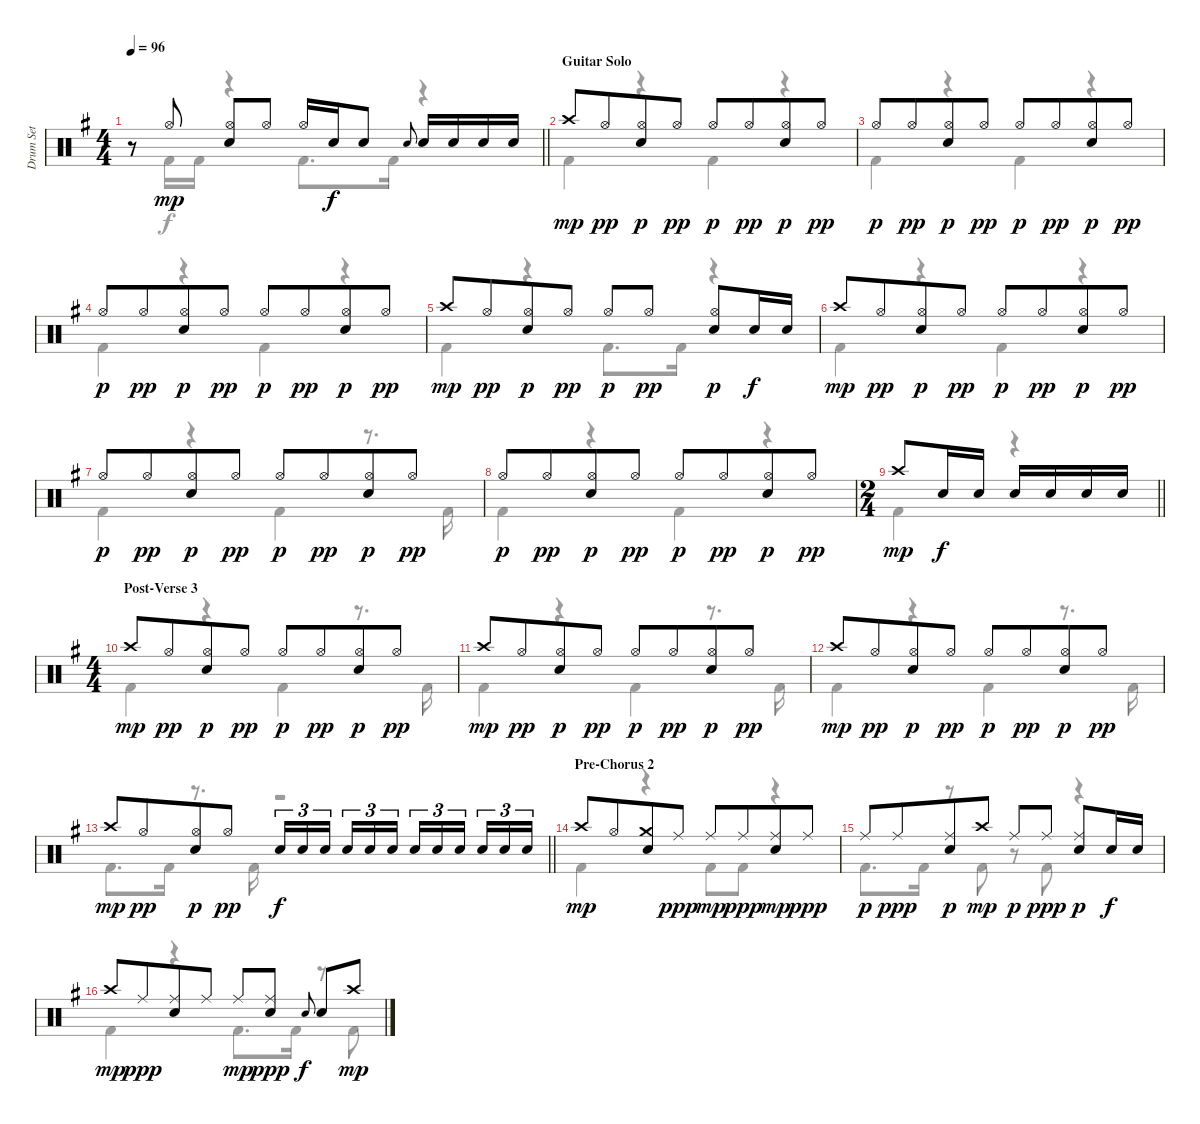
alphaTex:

\track ("Drum Set" "Drum Set") {instrument percussion}
\staff {score}
\articulation defaults
\voice
\ts (4 4)
\tempo 96
\clef neutral
\barLineRight lightlight
\ks g
r.8{dy mp} "Hi-Hat (open)".8 ("Electric Snare (hit)" "Hi-Hat (open)").8 "Hi-Hat (open)".8 "Hi-Hat (open)".16 "Electric Snare (hit)".16{dy f} "Electric Snare (hit)".8 "Electric Snare (hit)".8{gr onbeat} "Electric Snare (hit)".16 "Electric Snare (hit)".16 "Electric Snare (hit)".16 "Electric Snare (hit)".16 |
\section ("" "Guitar Solo")
"Crash high (hit)".8{dy mp} "Hi-Hat (open)".8{dy pp beam merge} ("Hi-Hat (open)" "Electric Snare (hit)").8{dy p} "Hi-Hat (open)".8{dy pp} "Hi-Hat (open)".8{dy p} "Hi-Hat (open)".8{dy pp beam merge} ("Hi-Hat (open)" "Electric Snare (hit)").8{dy p} "Hi-Hat (open)".8{dy pp} |
"Hi-Hat (open)".8{dy p} "Hi-Hat (open)".8{dy pp beam merge} ("Hi-Hat (open)" "Electric Snare (hit)").8{dy p} "Hi-Hat (open)".8{dy pp} "Hi-Hat (open)".8{dy p} "Hi-Hat (open)".8{dy pp beam merge} ("Hi-Hat (open)" "Electric Snare (hit)").8{dy p} "Hi-Hat (open)".8{dy pp} |
"Hi-Hat (open)".8{dy p} "Hi-Hat (open)".8{dy pp beam merge} ("Hi-Hat (open)" "Electric Snare (hit)").8{dy p} "Hi-Hat (open)".8{dy pp} "Hi-Hat (open)".8{dy p} "Hi-Hat (open)".8{dy pp beam merge} ("Hi-Hat (open)" "Electric Snare (hit)").8{dy p} "Hi-Hat (open)".8{dy pp} |
"Crash high (hit)".8{dy mp} "Hi-Hat (open)".8{dy pp beam merge} ("Hi-Hat (open)" "Electric Snare (hit)").8{dy p} "Hi-Hat (open)".8{dy pp} "Hi-Hat (open)".8{dy p} "Hi-Hat (open)".8{dy pp} ("Hi-Hat (open)" "Electric Snare (hit)").8{dy p} "Electric Snare (hit)".16{dy f} "Electric Snare (hit)".16 |
"Crash high (hit)".8{dy mp} "Hi-Hat (open)".8{dy pp beam merge} ("Hi-Hat (open)" "Electric Snare (hit)").8{dy p} "Hi-Hat (open)".8{dy pp} "Hi-Hat (open)".8{dy p} "Hi-Hat (open)".8{dy pp beam merge} ("Hi-Hat (open)" "Electric Snare (hit)").8{dy p} "Hi-Hat (open)".8{dy pp} |
"Hi-Hat (open)".8{dy p} "Hi-Hat (open)".8{dy pp beam merge} ("Hi-Hat (open)" "Electric Snare (hit)").8{dy p} "Hi-Hat (open)".8{dy pp} "Hi-Hat (open)".8{dy p} "Hi-Hat (open)".8{dy pp beam merge} ("Hi-Hat (open)" "Electric Snare (hit)").8{dy p} "Hi-Hat (open)".8{dy pp} |
"Hi-Hat (open)".8{dy p} "Hi-Hat (open)".8{dy pp beam merge} ("Hi-Hat (open)" "Electric Snare (hit)").8{dy p} "Hi-Hat (open)".8{dy pp} "Hi-Hat (open)".8{dy p} "Hi-Hat (open)".8{dy pp beam merge} ("Hi-Hat (open)" "Electric Snare (hit)").8{dy p} "Hi-Hat (open)".8{dy pp} |
\ts (2 4)
\barLineRight lightlight "Crash high (hit)".8{dy mp} "Electric Snare (hit)".16{dy f} "Electric Snare (hit)".16 "Electric Snare (hit)".16 "Electric Snare (hit)".16 "Electric Snare (hit)".16 "Electric Snare (hit)".16
|
\ts (4 4)
\section ("" "Post-Verse 3")
"Crash high (hit)".8{dy mp} "Hi-Hat (open)".8{dy pp beam merge} ("Hi-Hat (open)" "Electric Snare (hit)").8{dy p} "Hi-Hat (open)".8{dy pp} "Hi-Hat (open)".8{dy p} "Hi-Hat (open)".8{dy pp beam merge} ("Hi-Hat (open)" "Electric Snare (hit)").8{dy p} "Hi-Hat (open)".8{dy pp} |
"Crash high (hit)".8{dy mp} "Hi-Hat (open)".8{dy pp beam merge} ("Hi-Hat (open)" "Electric Snare (hit)").8{dy p} "Hi-Hat (open)".8{dy pp} "Hi-Hat (open)".8{dy p} "Hi-Hat (open)".8{dy pp beam merge} ("Hi-Hat (open)" "Electric Snare (hit)").8{dy p} "Hi-Hat (open)".8{dy pp} |
"Crash high (hit)".8{dy mp} "Hi-Hat (open)".8{dy pp beam merge} ("Hi-Hat (open)" "Electric Snare (hit)").8{dy p} "Hi-Hat (open)".8{dy pp} "Hi-Hat (open)".8{dy p} "Hi-Hat (open)".8{dy pp beam merge} ("Hi-Hat (open)" "Electric Snare (hit)").8{dy p} "Hi-Hat (open)".8{dy pp} |
\barLineRight lightlight "Crash high (hit)".8{dy mp} "Hi-Hat (open)".8{dy pp beam merge}
("Hi-Hat (open)" "Electric Snare (hit)").8{dy p} "Hi-Hat (open)".8{dy pp} "Electric Snare (hit)".16{tu (3 2) dy f} "Electric Snare (hit)".16{tu (3 2)} "Electric Snare (hit)".16{tu (3 2) beam splitsecondary} "Electric Snare (hit)".16{tu (3 2)} "Electric Snare (hit)".16{tu (3 2)} "Electric Snare (hit)".16{tu (3 2)} "Electric Snare (hit)".16{tu (3 2)} "Electric Snare (hit)".16{tu (3 2)} "Electric Snare (hit)".16{tu (3 2) beam splitsecondary} "Electric Snare (hit)".16{tu (3 2)} "Electric Snare (hit)".16{tu (3 2)} "Electric Snare (hit)".16{tu (3 2)} |
\section ("" "Pre-Chorus 2")
"Crash high (hit)".8{dy mp} "Hi-Hat (open)".8{beam merge} ("Electric Snare (hit)" "Crash medium (hit)").8 "Ride (middle)".8{dy ppp} "Ride (middle)".8{dy mp} "Ride (middle)".8{dy ppp beam merge} ("Ride (middle)" "Electric Snare (hit)").8{dy mp} "Ride (middle)".8{dy ppp} |
"Ride (middle)".8{dy p} "Ride (middle)".8{dy ppp beam merge} ("Ride (middle)" "Electric Snare (hit)").8{dy p} "Crash high (hit)".8{dy mp} "Ride (middle)".8{dy p} "Ride (middle)".8{dy ppp} ("Ride (middle)" "Electric Snare (hit)").8{dy p} "Electric Snare (hit)".16{dy f} "Electric Snare (hit)".16 |
"Crash high (hit)".8{dy mp} "Ride (middle)".8{dy ppp beam merge} ("Electric Snare (hit)" "Ride (middle)").8 "Ride (middle)".8 "Ride (middle)".8{dy mp} ("Ride (middle)" "Electric Snare (hit)").8{dy ppp} "Electric Snare (hit)".8{gr onbeat dy f beam merge} "Electric Snare (hit)".8 "Crash high (hit)".8{dy mp}
\voice
\clef neutral
\ottava regular
\simile none
\barLineRight lightlight
\ks g
r.8{dy f} "Kick (hit) 2".16 "Kick (hit) 2".16 r.4 "Kick (hit) 2".8{d} "Kick (hit) 2".16 r.4 |
"Kick (hit) 2".4 r.4 "Kick (hit) 2".4 r.4 |
"Kick (hit) 2".4 r.4 "Kick (hit) 2".4 r.4 |
"Kick (hit) 2".4 r.4 "Kick (hit) 2".4 r.4 |
"Kick (hit) 2".4 r.4 "Kick (hit) 2".8{d} "Kick (hit) 2".16 r.4 |
"Kick (hit) 2".4 r.4 "Kick (hit) 2".4 r.4 |
"Kick (hit) 2".4 r.4 "Kick (hit) 2".4 r.8{d} "Kick (hit) 2".16 |
"Kick (hit) 2".4 r.4 "Kick (hit) 2".4 r.4 |
\barLineRight lightlight "Kick (hit) 2".4
r.4 |
"Kick (hit) 2".4 r.4 "Kick (hit) 2".4 r.8{d} "Kick (hit) 2".16 |
"Kick (hit) 2".4 r.4 "Kick (hit) 2".4 r.8{d} "Kick (hit) 2".16 |
"Kick (hit) 2".4 r.4 "Kick (hit) 2".4 r.8{d} "Kick (hit) 2".16 |
\barLineRight lightlight "Kick (hit) 2".8{d} "Kick (hit) 2".16
r.8{d} "Kick (hit) 2".16 r.2 |
"Kick (hit) 2".4 r.4 "Kick (hit) 2".8 "Kick (hit) 2".8 r.4 |
"Kick (hit) 2".8{d} "Kick (hit) 2".16 r.8 "Kick (hit) 2".8 r.8 "Kick (hit) 2".8 r.4 |
"Kick (hit) 2".4 r.4 "Kick (hit) 2".8{d} "Kick (hit) 2".16 r.8 "Kick (hit) 2".8
